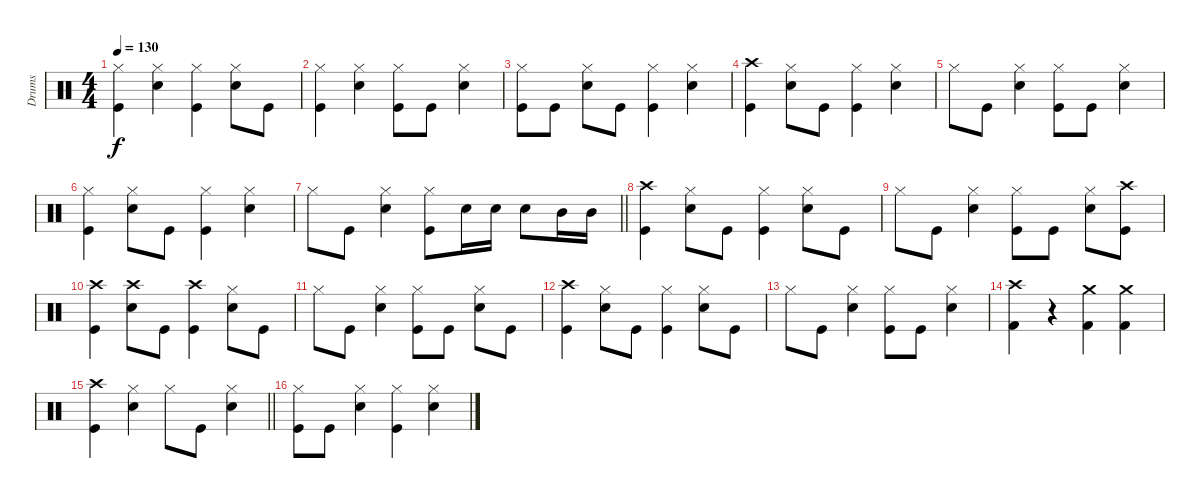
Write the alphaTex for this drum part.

\track ("Drums" "Drums") {instrument percussion}
\staff {score}
\articulation defaults
\ts (4 4)
\tempo 130
\clef neutral
\ks c
("Hi-Hat (closed)" "Kick (hit)").4{dy f} ("Hi-Hat (closed)" "Snare (hit) 2").4 ("Hi-Hat (closed)" "Kick (hit)").4 ("Hi-Hat (closed)" "Snare (hit) 2").8 "Kick (hit)".8 |
("Hi-Hat (closed)" "Kick (hit)").4 ("Hi-Hat (closed)" "Snare (hit) 2").4 ("Hi-Hat (closed)" "Kick (hit)").8 "Kick (hit)".8 ("Hi-Hat (closed)" "Snare (hit) 2").4 |
("Hi-Hat (closed)" "Kick (hit)").8 "Kick (hit)".8 ("Hi-Hat (closed)" "Snare (hit) 2").8 "Kick (hit)".8 ("Hi-Hat (closed)" "Kick (hit)").4 ("Hi-Hat (closed)" "Snare (hit) 2").4 |
("Crash high (hit)" "Kick (hit)").4 ("Hi-Hat (closed)" "Snare (hit) 2").8 "Kick (hit)".8 ("Hi-Hat (closed)" "Kick (hit)").4 ("Hi-Hat (closed)" "Snare (hit) 2").4 |
"Hi-Hat (closed)".8 "Kick (hit)".8 ("Hi-Hat (closed)" "Snare (hit) 2").4 ("Hi-Hat (closed)" "Kick (hit)").8 "Kick (hit)".8 ("Hi-Hat (closed)" "Snare (hit) 2").4 |
("Hi-Hat (closed)" "Kick (hit)").4 ("Hi-Hat (closed)" "Snare (hit) 2").8 "Kick (hit)".8 ("Hi-Hat (closed)" "Kick (hit)").4 ("Hi-Hat (closed)" "Snare (hit) 2").4 |
\barLineRight lightlight "Hi-Hat (closed)".8 "Kick (hit)".8
("Hi-Hat (closed)" "Snare (hit) 2").4 ("Hi-Hat (closed)" "Kick (hit)").8 "Snare (hit) 2".16 "Snare (hit) 2".16 "Snare (hit) 2".8 "Mid Tom (hit)".16 "Mid Tom (hit)".16 |
("Crash high (hit)" "Kick (hit)").4 ("Hi-Hat (closed)" "Snare (hit) 2").8 "Kick (hit)".8 ("Hi-Hat (closed)" "Kick (hit)").4 ("Hi-Hat (closed)" "Snare (hit) 2").8 "Kick (hit)".8 |
"Hi-Hat (closed)".8 "Kick (hit)".8 ("Hi-Hat (closed)" "Snare (hit) 2").4 ("Hi-Hat (closed)" "Kick (hit)").8 "Kick (hit)".8 ("Hi-Hat (closed)" "Snare (hit) 2").8 ("Crash high (hit)" "Kick (hit)").8 |
("Crash high (hit)" "Kick (hit)").4 ("Crash high (hit)" "Snare (hit) 2").8 "Kick (hit)".8 ("Crash high (hit)" "Kick (hit)").4 ("Hi-Hat (closed)" "Snare (hit) 2").8 "Kick (hit)".8 |
"Hi-Hat (closed)".8 "Kick (hit)".8 ("Hi-Hat (closed)" "Snare (hit) 2").4 ("Hi-Hat (closed)" "Kick (hit)").8 "Kick (hit)".8 ("Hi-Hat (closed)" "Snare (hit) 2").8 "Kick (hit)".8 |
("Crash high (hit)" "Kick (hit)").4 ("Hi-Hat (closed)" "Snare (hit) 2").8 "Kick (hit)".8 ("Hi-Hat (closed)" "Kick (hit)").4 ("Hi-Hat (closed)" "Snare (hit) 2").8 "Kick (hit)".8 |
"Hi-Hat (closed)".8 "Kick (hit)".8 ("Hi-Hat (closed)" "Snare (hit) 2").4 ("Hi-Hat (closed)" "Kick (hit)").8 "Kick (hit)".8 ("Hi-Hat (closed)" "Snare (hit) 2").4 |
("Crash high (hit)" "Kick (hit) 2").4 r.4 ("Crash medium (hit)" "Kick (hit) 2").4 ("Crash medium (hit)" "Kick (hit) 2").4 |
\barLineRight lightlight
("Crash high (hit)" "Kick (hit)").4 ("Hi-Hat (closed)" "Snare (hit) 2").4 "Hi-Hat (closed)".8 "Kick (hit)".8 ("Hi-Hat (closed)" "Snare (hit) 2").4 |
("Hi-Hat (closed)" "Kick (hit)").8 "Kick (hit)".8 ("Hi-Hat (closed)" "Snare (hit) 2").4 ("Hi-Hat (closed)" "Kick (hit)").4 ("Hi-Hat (closed)" "Snare (hit) 2").4
